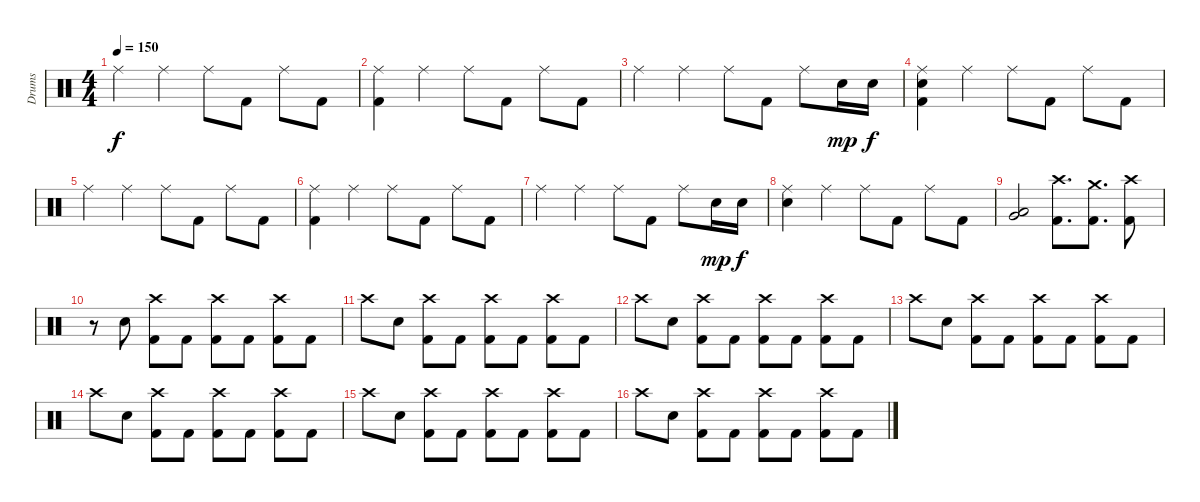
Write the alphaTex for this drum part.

\track ("Drums" "Drums") {instrument percussion}
\staff {score}
\articulation defaults
\ts (4 4)
\tempo 150
\clef neutral
\ks c "Ride (middle)".4{dy f} "Ride (middle)".4 "Ride (middle)".8 "Kick (hit) 2".8 "Ride (middle)".8 "Kick (hit) 2".8
|
("Ride (middle)" "Kick (hit) 2").4 "Ride (middle)".4 "Ride (middle)".8 "Kick (hit) 2".8 "Ride (middle)".8 "Kick (hit) 2".8 |
"Ride (middle)".4 "Ride (middle)".4 "Ride (middle)".8 "Kick (hit) 2".8 "Ride (middle)".8 "Electric Snare (hit)".16{dy mp} "Electric Snare (hit)".16{dy f} |
("Ride (middle)" "Electric Snare (hit)" "Kick (hit) 2").4 "Ride (middle)".4 "Ride (middle)".8 "Kick (hit) 2".8 "Ride (middle)".8 "Kick (hit) 2".8 |
"Ride (middle)".4 "Ride (middle)".4 "Ride (middle)".8 "Kick (hit) 2".8 "Ride (middle)".8 "Kick (hit) 2".8 |
("Ride (middle)" "Kick (hit) 2").4 "Ride (middle)".4 "Ride (middle)".8 "Kick (hit) 2".8 "Ride (middle)".8 "Kick (hit) 2".8 |
"Ride (middle)".4 "Ride (middle)".4 "Ride (middle)".8 "Kick (hit) 2".8 "Ride (middle)".8 "Electric Snare (hit)".16{dy mp} "Electric Snare (hit)".16{dy f} |
("Ride (middle)" "Electric Snare (hit)").4 "Ride (middle)".4 "Ride (middle)".8 "Kick (hit) 2".8 "Ride (middle)".8 "Kick (hit) 2".8 |
("Low Tom (hit)" "Very Low Tom (hit)").2 ("Crash high (hit)" "Kick (hit) 2").8{d} ("Crash medium (hit)" "Kick (hit) 2").8{d} ("Crash high (hit)" "Kick (hit) 2").8 |
r.8 "Electric Snare (hit)".8 ("Crash high (hit)" "Kick (hit) 2").8 "Kick (hit) 2".8 ("Crash high (hit)" "Kick (hit) 2").8 "Kick (hit) 2".8 ("Crash high (hit)" "Kick (hit) 2").8 "Kick (hit) 2".8 |
"Crash high (hit)".8 "Electric Snare (hit)".8 ("Crash high (hit)" "Kick (hit) 2").8 "Kick (hit) 2".8 ("Crash high (hit)" "Kick (hit) 2").8 "Kick (hit) 2".8 ("Crash high (hit)" "Kick (hit) 2").8 "Kick (hit) 2".8 |
"Crash high (hit)".8 "Electric Snare (hit)".8 ("Crash high (hit)" "Kick (hit) 2").8 "Kick (hit) 2".8 ("Crash high (hit)" "Kick (hit) 2").8 "Kick (hit) 2".8 ("Crash high (hit)" "Kick (hit) 2").8 "Kick (hit) 2".8 |
"Crash high (hit)".8 "Electric Snare (hit)".8 ("Crash high (hit)" "Kick (hit) 2").8 "Kick (hit) 2".8 ("Crash high (hit)" "Kick (hit) 2").8 "Kick (hit) 2".8 ("Crash high (hit)" "Kick (hit) 2").8 "Kick (hit) 2".8 |
"Crash high (hit)".8 "Electric Snare (hit)".8 ("Crash high (hit)" "Kick (hit) 2").8 "Kick (hit) 2".8 ("Crash high (hit)" "Kick (hit) 2").8 "Kick (hit) 2".8 ("Crash high (hit)" "Kick (hit) 2").8 "Kick (hit) 2".8 |
"Crash high (hit)".8 "Electric Snare (hit)".8 ("Crash high (hit)" "Kick (hit) 2").8 "Kick (hit) 2".8 ("Crash high (hit)" "Kick (hit) 2").8 "Kick (hit) 2".8 ("Crash high (hit)" "Kick (hit) 2").8 "Kick (hit) 2".8 |
"Crash high (hit)".8 "Electric Snare (hit)".8 ("Crash high (hit)" "Kick (hit) 2").8 "Kick (hit) 2".8 ("Crash high (hit)" "Kick (hit) 2").8 "Kick (hit) 2".8 ("Crash high (hit)" "Kick (hit) 2").8 "Kick (hit) 2".8
